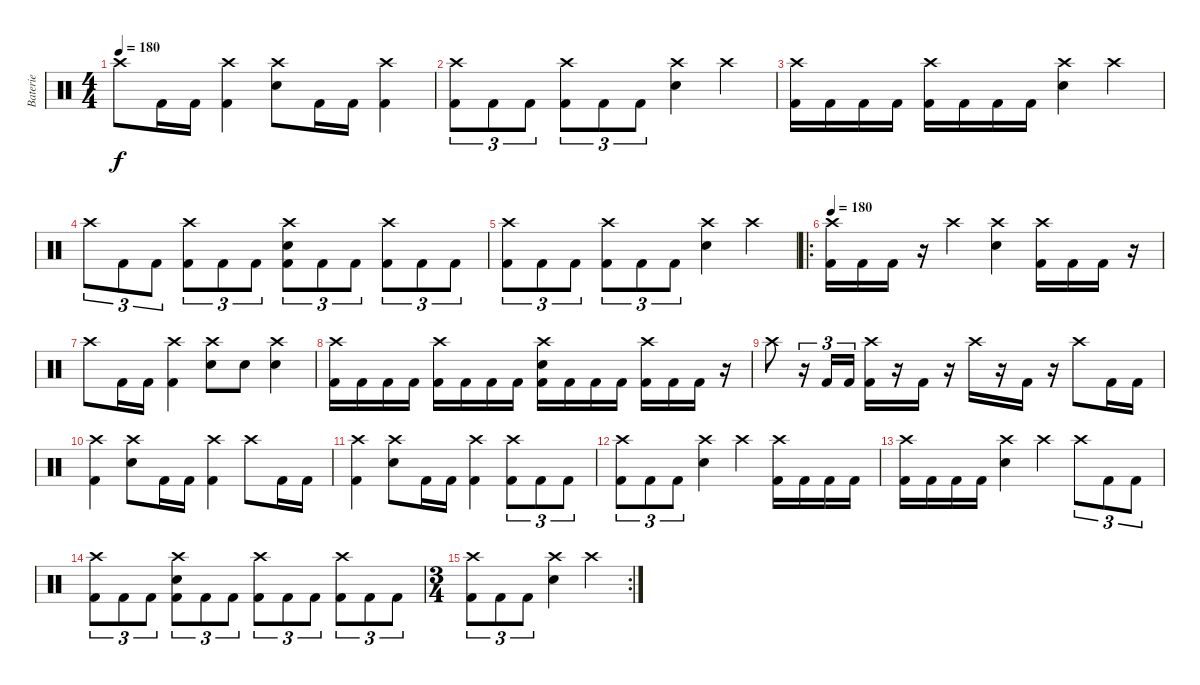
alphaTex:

\track ("Baterie" "Baterie") {instrument percussion}
\staff {score}
\articulation defaults
\ts (4 4)
\tempo 180
\clef neutral
\ks c "Crash high (hit)".8{dy f} "Kick (hit) 2".16 "Kick (hit) 2".16
("Crash high (hit)" "Kick (hit) 2").4 ("Crash high (hit)" "Electric Snare (hit)").8 "Kick (hit) 2".16 "Kick (hit) 2".16 ("Crash high (hit)" "Kick (hit) 2").4 |
("Crash high (hit)" "Kick (hit) 2").8{tu (3 2)} "Kick (hit) 2".8{tu (3 2)} "Kick (hit) 2".8{tu (3 2)} ("Crash high (hit)" "Kick (hit) 2").8{tu (3 2)} "Kick (hit) 2".8{tu (3 2)} "Kick (hit) 2".8{tu (3 2)} ("Crash high (hit)" "Electric Snare (hit)").4 "Crash high (hit)".4 |
("Crash high (hit)" "Kick (hit) 2").16 "Kick (hit) 2".16 "Kick (hit) 2".16 "Kick (hit) 2".16 ("Crash high (hit)" "Kick (hit) 2").16 "Kick (hit) 2".16 "Kick (hit) 2".16 "Kick (hit) 2".16 ("Crash high (hit)" "Electric Snare (hit)").4 "Crash high (hit)".4 |
"Crash high (hit)".8{tu (3 2)} "Kick (hit) 2".8{tu (3 2)} "Kick (hit) 2".8{tu (3 2)} ("Crash high (hit)" "Kick (hit) 2").8{tu (3 2)} "Kick (hit) 2".8{tu (3 2)} "Kick (hit) 2".8{tu (3 2)} ("Crash high (hit)" "Electric Snare (hit)" "Kick (hit) 2").8{tu (3 2)} "Kick (hit) 2".8{tu (3 2)} "Kick (hit) 2".8{tu (3 2)} ("Crash high (hit)" "Kick (hit) 2").8{tu (3 2)} "Kick (hit) 2".8{tu (3 2)} "Kick (hit) 2".8{tu (3 2)} |
("Crash high (hit)" "Kick (hit) 2").8{tu (3 2)} "Kick (hit) 2".8{tu (3 2)} "Kick (hit) 2".8{tu (3 2)} ("Crash high (hit)" "Kick (hit) 2").8{tu (3 2)} "Kick (hit) 2".8{tu (3 2)} "Kick (hit) 2".8{tu (3 2)} ("Crash high (hit)" "Electric Snare (hit)").4 "Crash high (hit)".4 |
\ro
\tempo 180
("Crash high (hit)" "Kick (hit) 2").16 "Kick (hit) 2".16 "Kick (hit) 2".16 r.16 "Crash high (hit)".4 ("Crash high (hit)" "Electric Snare (hit)").4 ("Crash high (hit)" "Kick (hit) 2").16 "Kick (hit) 2".16 "Kick (hit) 2".16 r.16 |
"Crash high (hit)".8 "Kick (hit) 2".16 "Kick (hit) 2".16 ("Crash high (hit)" "Kick (hit) 2").4 ("Crash high (hit)" "Electric Snare (hit)").8 "Electric Snare (hit)".8 ("Crash high (hit)" "Electric Snare (hit)").4 |
("Crash high (hit)" "Kick (hit) 2").16 "Kick (hit) 2".16 "Kick (hit) 2".16 "Kick (hit) 2".16 ("Crash high (hit)" "Kick (hit) 2").16 "Kick (hit) 2".16 "Kick (hit) 2".16 "Kick (hit) 2".16 ("Crash high (hit)" "Electric Snare (hit)" "Kick (hit) 2").16 "Kick (hit) 2".16 "Kick (hit) 2".16 "Kick (hit) 2".16 ("Crash high (hit)" "Kick (hit) 2").16 "Kick (hit) 2".16 "Kick (hit) 2".16 r.16 |
"Crash high (hit)".8 r.16{tu (3 2)} "Kick (hit) 2".16{tu (3 2)} "Kick (hit) 2".16{tu (3 2)} ("Crash high (hit)" "Kick (hit) 2").16 r.16 "Kick (hit) 2".16 r.16 "Crash high (hit)".16 r.16 "Kick (hit) 2".16 r.16 "Crash high (hit)".8 "Kick (hit) 2".16 "Kick (hit) 2".16 |
("Crash high (hit)" "Kick (hit) 2").4 ("Crash high (hit)" "Electric Snare (hit)").8 "Kick (hit) 2".16 "Kick (hit) 2".16 ("Crash high (hit)" "Kick (hit) 2").4 "Crash high (hit)".8 "Kick (hit) 2".16 "Kick (hit) 2".16 |
("Crash high (hit)" "Kick (hit) 2").4 ("Crash high (hit)" "Electric Snare (hit)").8 "Kick (hit) 2".16 "Kick (hit) 2".16 ("Crash high (hit)" "Kick (hit) 2").4 ("Crash high (hit)" "Kick (hit) 2").8{tu (3 2)} "Kick (hit) 2".8{tu (3 2)} "Kick (hit) 2".8{tu (3 2)} |
("Crash high (hit)" "Kick (hit) 2").8{tu (3 2)} "Kick (hit) 2".8{tu (3 2)} "Kick (hit) 2".8{tu (3 2)} ("Crash high (hit)" "Electric Snare (hit)").4 "Crash high (hit)".4 ("Crash high (hit)" "Kick (hit) 2").16 "Kick (hit) 2".16 "Kick (hit) 2".16 "Kick (hit) 2".16 |
("Crash high (hit)" "Kick (hit) 2").16 "Kick (hit) 2".16 "Kick (hit) 2".16 "Kick (hit) 2".16 ("Crash high (hit)" "Electric Snare (hit)").4 "Crash high (hit)".4 "Crash high (hit)".8{tu (3 2)} "Kick (hit) 2".8{tu (3 2)} "Kick (hit) 2".8{tu (3 2)} |
("Crash high (hit)" "Kick (hit) 2").8{tu (3 2)} "Kick (hit) 2".8{tu (3 2)} "Kick (hit) 2".8{tu (3 2)} ("Crash high (hit)" "Kick (hit) 2" "Electric Snare (hit)").8{tu (3 2)} "Kick (hit) 2".8{tu (3 2)} "Kick (hit) 2".8{tu (3 2)} ("Crash high (hit)" "Kick (hit) 2").8{tu (3 2)} "Kick (hit) 2".8{tu (3 2)} "Kick (hit) 2".8{tu (3 2)} ("Crash high (hit)" "Kick (hit) 2").8{tu (3 2)} "Kick (hit) 2".8{tu (3 2)} "Kick (hit) 2".8{tu (3 2)} |
\rc 2
\ts (3 4)
("Crash high (hit)" "Kick (hit) 2").8{tu (3 2)} "Kick (hit) 2".8{tu (3 2)} "Kick (hit) 2".8{tu (3 2)} ("Crash high (hit)" "Electric Snare (hit)").4 "Crash high (hit)".4
